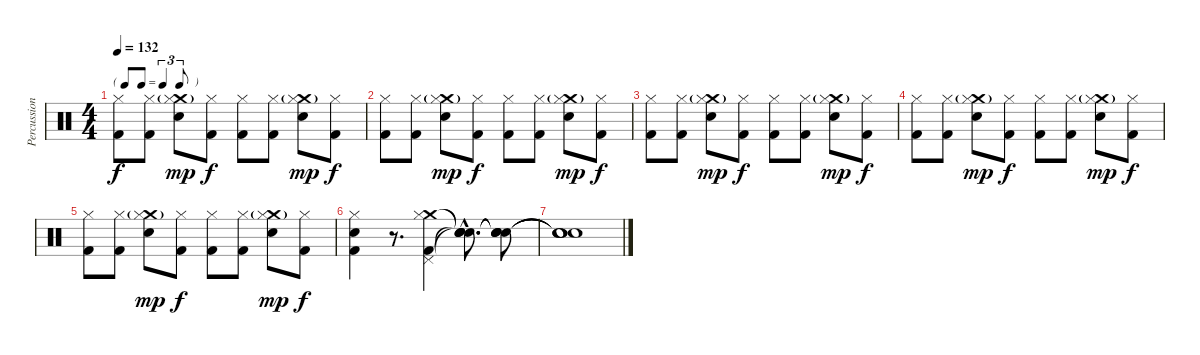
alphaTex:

\track ("Percussion" "Percussion") {instrument percussion}
\staff {score}
\articulation defaults
\ts (4 4)
\tf triplet8th
\tempo 132
\clef neutral
\ks c
("Hi-Hat (closed)" "Kick (hit) 2").8{dy f} ("Hi-Hat (closed)" "Kick (hit) 2").8 ("Crash medium (hit)"{g} "Hi-Hat (closed)" "Electric Snare (hit)").8{dy mp} ("Hi-Hat (closed)" "Kick (hit) 2").8{dy f} ("Hi-Hat (closed)" "Kick (hit) 2").8 ("Hi-Hat (closed)" "Kick (hit) 2").8 ("Crash medium (hit)"{g} "Hi-Hat (closed)" "Electric Snare (hit)").8{dy mp} ("Hi-Hat (closed)" "Kick (hit) 2").8{dy f} |
("Hi-Hat (closed)" "Kick (hit) 2").8 ("Hi-Hat (closed)" "Kick (hit) 2").8 ("Crash medium (hit)"{g} "Hi-Hat (closed)" "Electric Snare (hit)").8{dy mp} ("Hi-Hat (closed)" "Kick (hit) 2").8{dy f} ("Hi-Hat (closed)" "Kick (hit) 2").8 ("Hi-Hat (closed)" "Kick (hit) 2").8 ("Crash medium (hit)"{g} "Hi-Hat (closed)" "Electric Snare (hit)").8{dy mp} ("Hi-Hat (closed)" "Kick (hit) 2").8{dy f} |
("Hi-Hat (closed)" "Kick (hit) 2").8 ("Hi-Hat (closed)" "Kick (hit) 2").8 ("Crash medium (hit)"{g} "Hi-Hat (closed)" "Electric Snare (hit)").8{dy mp} ("Hi-Hat (closed)" "Kick (hit) 2").8{dy f} ("Hi-Hat (closed)" "Kick (hit) 2").8 ("Hi-Hat (closed)" "Kick (hit) 2").8 ("Crash medium (hit)"{g} "Hi-Hat (closed)" "Electric Snare (hit)").8{dy mp} ("Hi-Hat (closed)" "Kick (hit) 2").8{dy f} |
("Hi-Hat (closed)" "Kick (hit) 2").8 ("Hi-Hat (closed)" "Kick (hit) 2").8 ("Crash medium (hit)"{g} "Hi-Hat (closed)" "Electric Snare (hit)").8{dy mp} ("Hi-Hat (closed)" "Kick (hit) 2").8{dy f} ("Hi-Hat (closed)" "Kick (hit) 2").8 ("Hi-Hat (closed)" "Kick (hit) 2").8 ("Crash medium (hit)"{g} "Hi-Hat (closed)" "Electric Snare (hit)").8{dy mp} ("Hi-Hat (closed)" "Kick (hit) 2").8{dy f} |
("Hi-Hat (closed)" "Kick (hit) 2").8 ("Hi-Hat (closed)" "Kick (hit) 2").8 ("Crash medium (hit)"{g} "Hi-Hat (closed)" "Electric Snare (hit)").8{dy mp} ("Hi-Hat (closed)" "Kick (hit) 2").8{dy f} ("Hi-Hat (closed)" "Kick (hit) 2").8 ("Hi-Hat (closed)" "Kick (hit) 2").8 ("Crash medium (hit)"{g} "Hi-Hat (closed)" "Electric Snare (hit)").8{dy mp} ("Hi-Hat (closed)" "Kick (hit) 2").8{dy f} |
("Hi-Hat (closed)" "Electric Snare (hit)" "Kick (hit) 2").4 r.8{d} ("Crash medium (hit)" "Hi-Hat (closed)" "Pedal Hi-Hat (hit)" "Kick (hit) 2").4 ("Snare (hit)"{hac t} "Snare (hit)"{hac t} "Snare (hit)"{hac t} "Snare (hit)"{hac t}).8{d} ("Snare (hit)"{t} "Snare (hit)"{t} "Snare (hit)"{t} "Snare (hit)"{t}).8 |
("Snare (hit)"{t} "Snare (hit)"{t} "Snare (hit)"{t} "Snare (hit)"{t}).1
